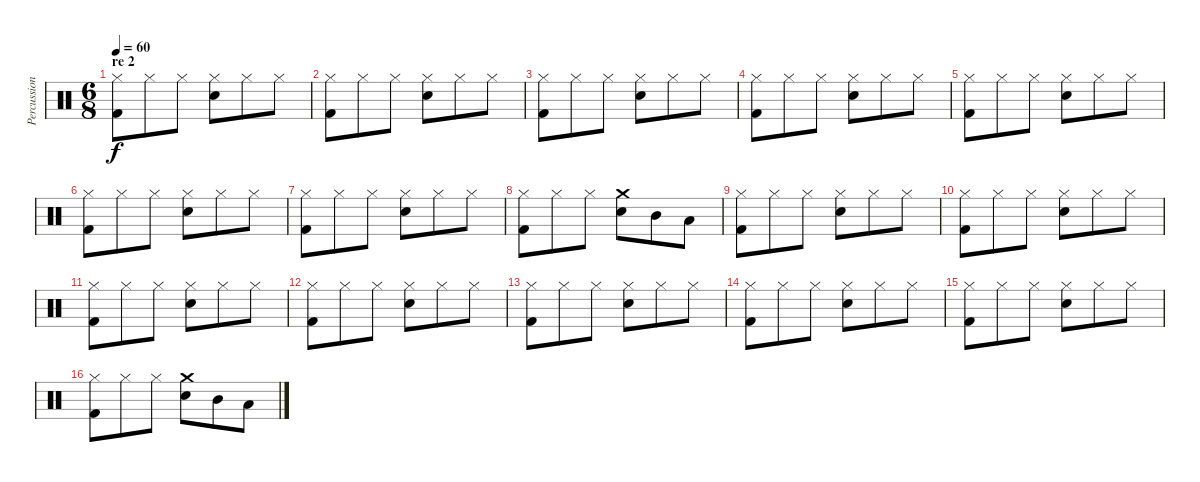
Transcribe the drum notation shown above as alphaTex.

\track ("Percussions" "Percussion") {instrument percussion}
\staff {score}
\articulation defaults
\ts (6 8)
\section ("" "re 2")
\tempo 60
\clef neutral
\ks c
("Hi-Hat (closed)" "Kick (hit) 2").8{dy f} "Hi-Hat (closed)".8 "Hi-Hat (closed)".8 ("Hi-Hat (closed)" "Snare (hit) 2").8 "Hi-Hat (closed)".8 "Hi-Hat (closed)".8 |
("Hi-Hat (closed)" "Kick (hit) 2").8 "Hi-Hat (closed)".8 "Hi-Hat (closed)".8 ("Hi-Hat (closed)" "Snare (hit) 2").8 "Hi-Hat (closed)".8 "Hi-Hat (closed)".8 |
("Hi-Hat (closed)" "Kick (hit) 2").8 "Hi-Hat (closed)".8 "Hi-Hat (closed)".8 ("Hi-Hat (closed)" "Snare (hit) 2").8 "Hi-Hat (closed)".8 "Hi-Hat (closed)".8 |
("Hi-Hat (closed)" "Kick (hit) 2").8 "Hi-Hat (closed)".8 "Hi-Hat (closed)".8 ("Hi-Hat (closed)" "Snare (hit) 2").8 "Hi-Hat (closed)".8 "Hi-Hat (closed)".8 |
("Hi-Hat (closed)" "Kick (hit) 2").8 "Hi-Hat (closed)".8 "Hi-Hat (closed)".8 ("Hi-Hat (closed)" "Snare (hit) 2").8 "Hi-Hat (closed)".8 "Hi-Hat (closed)".8 |
("Hi-Hat (closed)" "Kick (hit) 2").8 "Hi-Hat (closed)".8 "Hi-Hat (closed)".8 ("Hi-Hat (closed)" "Snare (hit) 2").8 "Hi-Hat (closed)".8 "Hi-Hat (closed)".8 |
("Hi-Hat (closed)" "Kick (hit) 2").8 "Hi-Hat (closed)".8 "Hi-Hat (closed)".8 ("Hi-Hat (closed)" "Snare (hit) 2").8 "Hi-Hat (closed)".8 "Hi-Hat (closed)".8 |
("Hi-Hat (closed)" "Kick (hit) 2").8 "Hi-Hat (closed)".8 "Hi-Hat (closed)".8 ("Crash medium (hit)" "Snare (hit) 2").8 "Mid Tom (hit)".8 "Low Tom (hit)".8 |
("Hi-Hat (closed)" "Kick (hit) 2").8 "Hi-Hat (closed)".8 "Hi-Hat (closed)".8 ("Hi-Hat (closed)" "Snare (hit) 2").8 "Hi-Hat (closed)".8 "Hi-Hat (closed)".8 |
("Hi-Hat (closed)" "Kick (hit) 2").8 "Hi-Hat (closed)".8 "Hi-Hat (closed)".8 ("Hi-Hat (closed)" "Snare (hit) 2").8 "Hi-Hat (closed)".8 "Hi-Hat (closed)".8 |
("Hi-Hat (closed)" "Kick (hit) 2").8 "Hi-Hat (closed)".8 "Hi-Hat (closed)".8 ("Hi-Hat (closed)" "Snare (hit) 2").8 "Hi-Hat (closed)".8 "Hi-Hat (closed)".8 |
("Hi-Hat (closed)" "Kick (hit) 2").8 "Hi-Hat (closed)".8 "Hi-Hat (closed)".8 ("Hi-Hat (closed)" "Snare (hit) 2").8 "Hi-Hat (closed)".8 "Hi-Hat (closed)".8 |
("Hi-Hat (closed)" "Kick (hit) 2").8 "Hi-Hat (closed)".8 "Hi-Hat (closed)".8 ("Hi-Hat (closed)" "Snare (hit) 2").8 "Hi-Hat (closed)".8 "Hi-Hat (closed)".8 |
("Hi-Hat (closed)" "Kick (hit) 2").8 "Hi-Hat (closed)".8 "Hi-Hat (closed)".8 ("Hi-Hat (closed)" "Snare (hit) 2").8 "Hi-Hat (closed)".8 "Hi-Hat (closed)".8 |
("Hi-Hat (closed)" "Kick (hit) 2").8 "Hi-Hat (closed)".8 "Hi-Hat (closed)".8 ("Hi-Hat (closed)" "Snare (hit) 2").8 "Hi-Hat (closed)".8 "Hi-Hat (closed)".8 |
("Hi-Hat (closed)" "Kick (hit) 2").8 "Hi-Hat (closed)".8 "Hi-Hat (closed)".8 ("Crash medium (hit)" "Snare (hit) 2").8 "Mid Tom (hit)".8 "Low Tom (hit)".8
